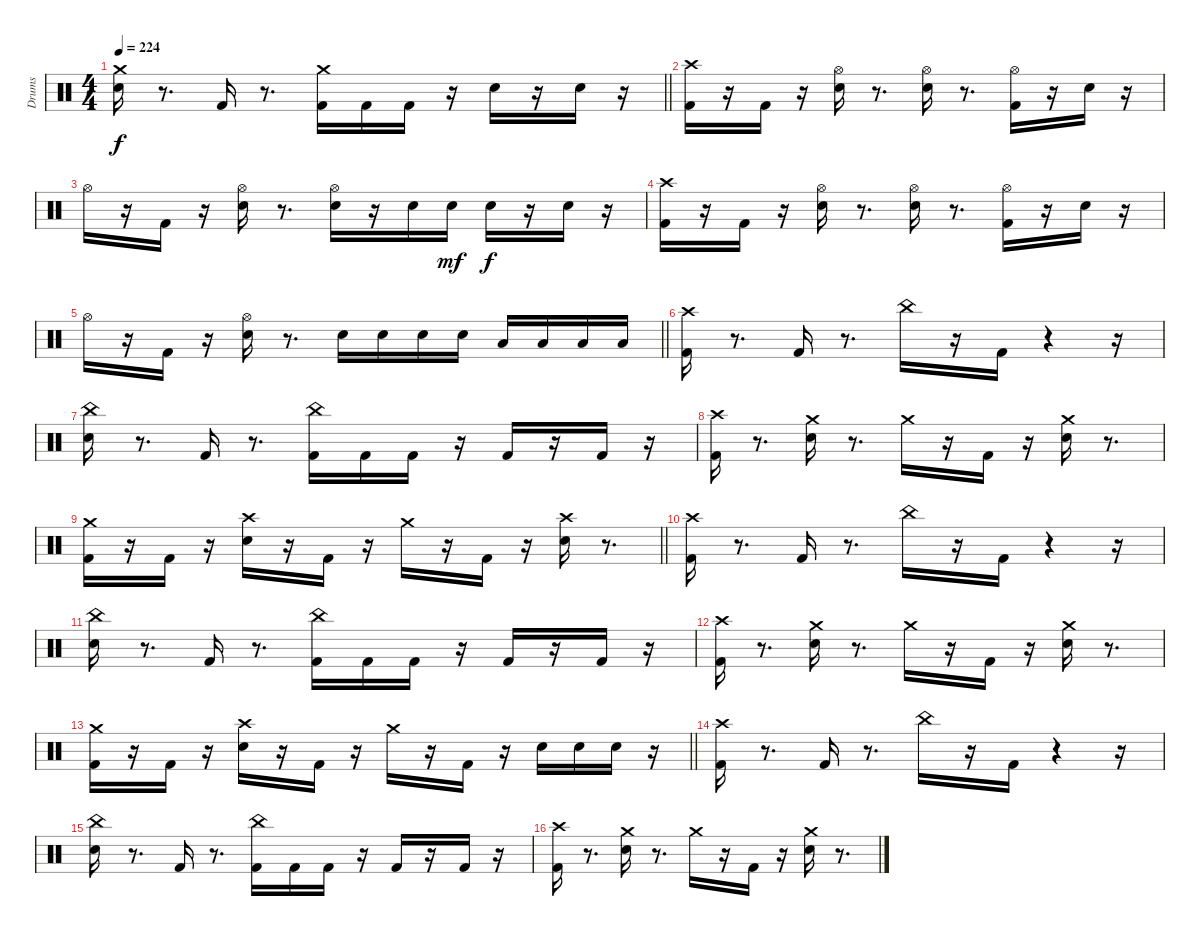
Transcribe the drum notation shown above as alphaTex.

\track ("Drums" "Drums") {instrument percussion}
\staff {score}
\articulation defaults
\ts (4 4)
\tempo 224
\clef neutral
\barLineRight lightlight
\ks c
("Snare (hit) 2" "Crash medium (hit)").16{dy f} r.8{d} "Kick (hit) 2".16 r.8{d} ("Kick (hit) 2" "Crash medium (hit)").16 "Kick (hit) 2".16 "Kick (hit) 2".16 r.16 "Snare (hit) 2".16 r.16 "Snare (hit) 2".16 r.16 |
\section ("" " ")
("Kick (hit) 2" "Crash high (hit)").16 r.16 "Kick (hit) 2".16 r.16 ("Snare (hit) 2" "Hi-Hat (open)").16 r.8{d} ("Snare (hit) 2" "Hi-Hat (open)").16 r.8{d} ("Kick (hit) 2" "Hi-Hat (open)").16 r.16 "Snare (hit) 2".16 r.16 |
"Hi-Hat (open)".16 r.16 "Kick (hit) 2".16 r.16 ("Snare (hit) 2" "Hi-Hat (open)").16 r.8{d} ("Snare (hit) 2" "Hi-Hat (open)").16 r.16 "Snare (hit) 2".16 "Snare (hit) 2".16{dy mf} "Snare (hit) 2".16{dy f} r.16 "Snare (hit) 2".16 r.16 |
("Kick (hit) 2" "Crash high (hit)").16 r.16 "Kick (hit) 2".16 r.16 ("Snare (hit) 2" "Hi-Hat (open)").16 r.8{d} ("Snare (hit) 2" "Hi-Hat (open)").16 r.8{d} ("Kick (hit) 2" "Hi-Hat (open)").16 r.16 "Snare (hit) 2".16 r.16 |
\barLineRight lightlight "Hi-Hat (open)".16
r.16 "Kick (hit) 2".16 r.16 ("Snare (hit) 2" "Hi-Hat (open)").16 r.8{d} "Snare (hit) 2".16 "Snare (hit) 2".16 "Snare (hit) 2".16 "Snare (hit) 2".16 "Low Tom (hit)".16 "Low Tom (hit)".16 "Low Tom (hit)".16 "Low Tom (hit)".16 |
\section ("" " ")
("Kick (hit) 2" "Crash high (hit)").16 r.8{d} "Kick (hit) 2".16 r.8{d} "China (hit)".16 r.16 "Kick (hit) 2".16 r.4 r.16 |
("Snare (hit) 2" "China (hit)").16 r.8{d} "Kick (hit) 2".16 r.8{d} ("Kick (hit) 2" "China (hit)").16 "Kick (hit) 2".16 "Kick (hit) 2".16 r.16 "Kick (hit) 2".16 r.16 "Kick (hit) 2".16 r.16 |
("Kick (hit) 2" "Crash high (hit)").16 r.8{d} ("Snare (hit) 2" "Crash medium (hit)").16 r.8{d} "Crash medium (hit)".16 r.16 "Kick (hit) 2".16 r.16 ("Snare (hit) 2" "Crash medium (hit)").16 r.8{d} |
\barLineRight lightlight
("Kick (hit) 2" "Crash medium (hit)").16 r.16 "Kick (hit) 2".16 r.16 ("Snare (hit) 2" "Crash high (hit)").16 r.16 "Kick (hit) 2".16 r.16 "Crash medium (hit)".16 r.16 "Kick (hit) 2".16 r.16 ("Snare (hit) 2" "Crash high (hit)").16 r.8{d} |
("Kick (hit) 2" "Crash high (hit)").16 r.8{d} "Kick (hit) 2".16 r.8{d} "China (hit)".16 r.16 "Kick (hit) 2".16 r.4 r.16 |
("Snare (hit) 2" "China (hit)").16 r.8{d} "Kick (hit) 2".16 r.8{d} ("Kick (hit) 2" "China (hit)").16 "Kick (hit) 2".16 "Kick (hit) 2".16 r.16 "Kick (hit) 2".16 r.16 "Kick (hit) 2".16 r.16 |
("Kick (hit) 2" "Crash high (hit)").16 r.8{d} ("Snare (hit) 2" "Crash medium (hit)").16 r.8{d} "Crash medium (hit)".16 r.16 "Kick (hit) 2".16 r.16 ("Snare (hit) 2" "Crash medium (hit)").16 r.8{d} |
\barLineRight lightlight
("Kick (hit) 2" "Crash medium (hit)").16 r.16 "Kick (hit) 2".16 r.16 ("Snare (hit) 2" "Crash high (hit)").16 r.16 "Kick (hit) 2".16 r.16 "Crash medium (hit)".16 r.16 "Kick (hit) 2".16 r.16 "Snare (hit) 2".16 "Snare (hit) 2".16 "Snare (hit) 2".16 r.16 |
("Kick (hit) 2" "Crash high (hit)").16 r.8{d} "Kick (hit) 2".16 r.8{d} "China (hit)".16 r.16 "Kick (hit) 2".16 r.4 r.16 |
("Snare (hit) 2" "China (hit)").16 r.8{d} "Kick (hit) 2".16 r.8{d} ("Kick (hit) 2" "China (hit)").16 "Kick (hit) 2".16 "Kick (hit) 2".16 r.16 "Kick (hit) 2".16 r.16 "Kick (hit) 2".16 r.16 |
("Kick (hit) 2" "Crash high (hit)").16 r.8{d} ("Snare (hit) 2" "Crash medium (hit)").16 r.8{d} "Crash medium (hit)".16 r.16 "Kick (hit) 2".16 r.16 ("Snare (hit) 2" "Crash medium (hit)").16 r.8{d}
